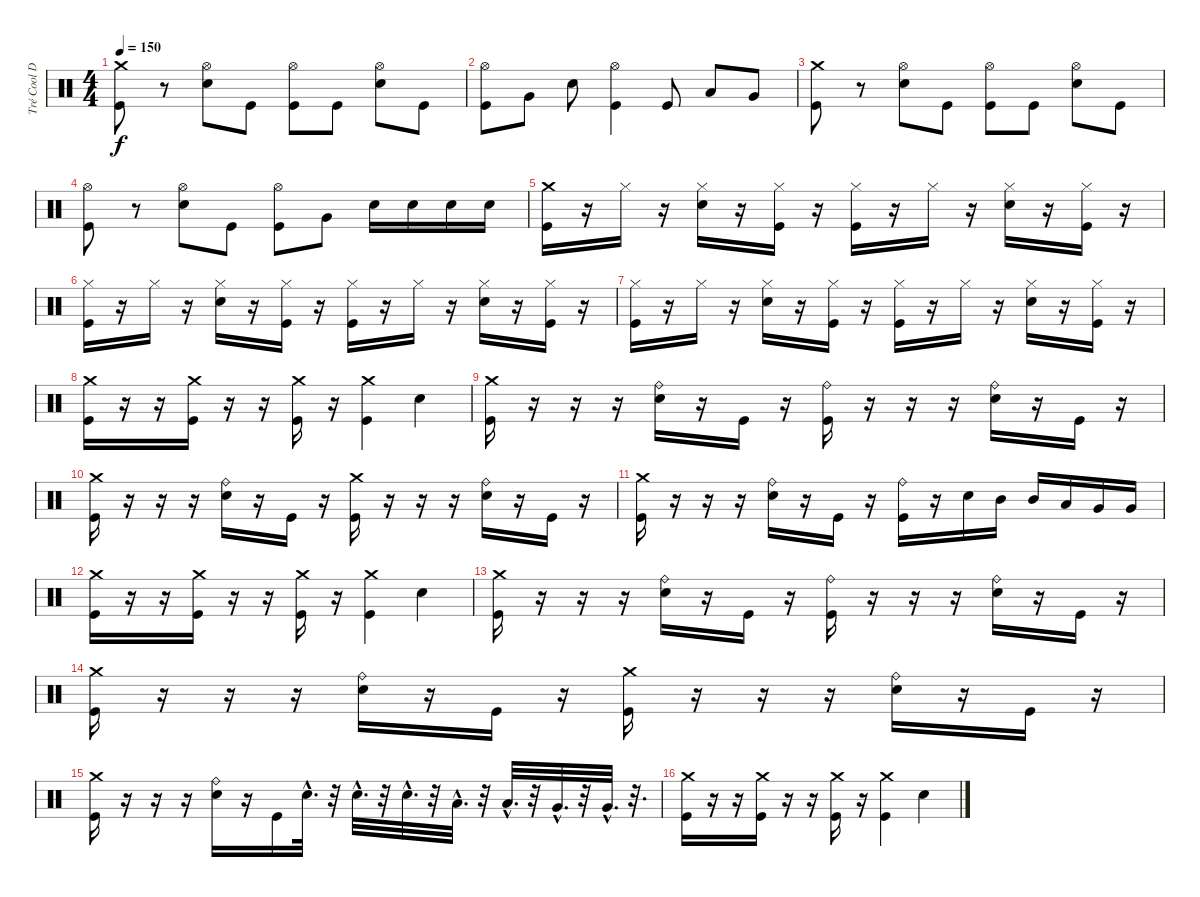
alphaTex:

\track ("Tré Cool Drums" "Tré Cool D") {instrument percussion}
\staff {score}
\articulation defaults
\ts (4 4)
\tempo 150
\clef neutral
\ks c
("Crash medium (hit)" "Kick (hit)").8{dy f} r.8 ("Hi-Hat (open)" "Electric Snare (hit)").8 "Kick (hit)".8 ("Hi-Hat (open)" "Kick (hit)").8 "Kick (hit)".8 ("Hi-Hat (open)" "Electric Snare (hit)").8 "Kick (hit)".8 |
("Hi-Hat (open)" "Kick (hit)").8 "Very Low Tom (hit)".8 "Electric Snare (hit)".8 ("Hi-Hat (open)" "Kick (hit)").4 "Kick (hit)".8 "Low Tom (hit)".8 "Very Low Tom (hit)".8 |
("Crash medium (hit)" "Kick (hit)").8 r.8 ("Hi-Hat (open)" "Electric Snare (hit)").8 "Kick (hit)".8 ("Hi-Hat (open)" "Kick (hit)").8 "Kick (hit)".8 ("Hi-Hat (open)" "Electric Snare (hit)").8 "Kick (hit)".8 |
("Hi-Hat (open)" "Kick (hit)").8 r.8 ("Hi-Hat (open)" "Electric Snare (hit)").8 "Kick (hit)".8 ("Hi-Hat (open)" "Kick (hit)").8 "Very Low Tom (hit)".8 "Electric Snare (hit)".16 "Electric Snare (hit)".16 "Electric Snare (hit)".16 "Electric Snare (hit)".16 |
("Crash medium (hit)" "Kick (hit)").16 r.16 "Hi-Hat (closed)".16 r.16 ("Hi-Hat (closed)" "Electric Snare (hit)").16 r.16 ("Hi-Hat (closed)" "Kick (hit)").16 r.16 ("Hi-Hat (closed)" "Kick (hit)").16 r.16 "Hi-Hat (closed)".16 r.16 ("Hi-Hat (closed)" "Electric Snare (hit)").16 r.16 ("Hi-Hat (closed)" "Kick (hit)").16 r.16 |
("Hi-Hat (closed)" "Kick (hit)").16 r.16 "Hi-Hat (closed)".16 r.16 ("Hi-Hat (closed)" "Electric Snare (hit)").16 r.16 ("Hi-Hat (closed)" "Kick (hit)").16 r.16 ("Hi-Hat (closed)" "Kick (hit)").16 r.16 "Hi-Hat (closed)".16 r.16 ("Hi-Hat (closed)" "Electric Snare (hit)").16 r.16 ("Hi-Hat (closed)" "Kick (hit)").16 r.16 |
("Hi-Hat (closed)" "Kick (hit)").16 r.16 "Hi-Hat (closed)".16 r.16 ("Hi-Hat (closed)" "Electric Snare (hit)").16 r.16 ("Hi-Hat (closed)" "Kick (hit)").16 r.16 ("Hi-Hat (closed)" "Kick (hit)").16 r.16 "Hi-Hat (closed)".16 r.16 ("Hi-Hat (closed)" "Electric Snare (hit)").16 r.16 ("Hi-Hat (closed)" "Kick (hit)").16 r.16 |
("Crash medium (hit)" "Kick (hit)").16 r.16 r.16 ("Crash medium (hit)" "Kick (hit)").16 r.16 r.16 ("Crash medium (hit)" "Kick (hit)").16 r.16 ("Crash medium (hit)" "Kick (hit)").4 "Electric Snare (hit)".4 |
("Crash medium (hit)" "Kick (hit)").16 r.16 r.16 r.16 ("Ride (bell)" "Electric Snare (hit)").16 r.16 "Kick (hit)".16 r.16 ("Ride (bell)" "Kick (hit)").16 r.16 r.16 r.16 ("Ride (bell)" "Electric Snare (hit)").16 r.16 "Kick (hit)".16 r.16 |
("Crash medium (hit)" "Kick (hit)").16 r.16 r.16 r.16 ("Ride (bell)" "Electric Snare (hit)").16 r.16 "Kick (hit)".16 r.16 ("Crash medium (hit)" "Kick (hit)").16 r.16 r.16 r.16 ("Ride (bell)" "Electric Snare (hit)").16 r.16 "Kick (hit)".16 r.16 |
("Crash medium (hit)" "Kick (hit)").16 r.16 r.16 r.16 ("Ride (bell)" "Electric Snare (hit)").16 r.16 "Kick (hit)".16 r.16 ("Ride (bell)" "Kick (hit)").16 r.16 "Electric Snare (hit)".16 "Mid Tom (hit)".16 "Mid Tom (hit)".16 "Low Tom (hit)".16 "Very Low Tom (hit)".16 "Very Low Tom (hit)".16 |
("Crash medium (hit)" "Kick (hit)").16 r.16 r.16 ("Crash medium (hit)" "Kick (hit)").16 r.16 r.16 ("Crash medium (hit)" "Kick (hit)").16 r.16 ("Crash medium (hit)" "Kick (hit)").4 "Electric Snare (hit)".4 |
("Crash medium (hit)" "Kick (hit)").16 r.16 r.16 r.16 ("Ride (bell)" "Electric Snare (hit)").16 r.16 "Kick (hit)".16 r.16 ("Ride (bell)" "Kick (hit)").16 r.16 r.16 r.16 ("Ride (bell)" "Electric Snare (hit)").16 r.16 "Kick (hit)".16 r.16 |
("Crash medium (hit)" "Kick (hit)").16 r.16 r.16 r.16 ("Ride (bell)" "Electric Snare (hit)").16 r.16 "Kick (hit)".16 r.16 ("Crash medium (hit)" "Kick (hit)").16 r.16 r.16 r.16 ("Ride (bell)" "Electric Snare (hit)").16 r.16 "Kick (hit)".16 r.16 |
("Crash medium (hit)" "Kick (hit)").16 r.16 r.16 r.16 ("Ride (bell)" "Electric Snare (hit)").16 r.16 "Kick (hit)".16 "Electric Snare (hit)"{hac}.32{d} r.32 "Electric Snare (hit)"{hac}.32{d} r.32 "Electric Snare (hit)"{hac}.32{d} r.32 "Low Tom (hit)"{hac}.32{d} r.32 "Low Tom (hit)"{hac}.32{d} r.32 "Very Low Tom (hit)"{hac}.32{d} r.32 "Very Low Tom (hit)"{hac}.32{d} r.32{d} |
("Crash medium (hit)" "Kick (hit)").16 r.16 r.16 ("Crash medium (hit)" "Kick (hit)").16 r.16 r.16 ("Crash medium (hit)" "Kick (hit)").16 r.16 ("Crash medium (hit)" "Kick (hit)").4 "Electric Snare (hit)".4
